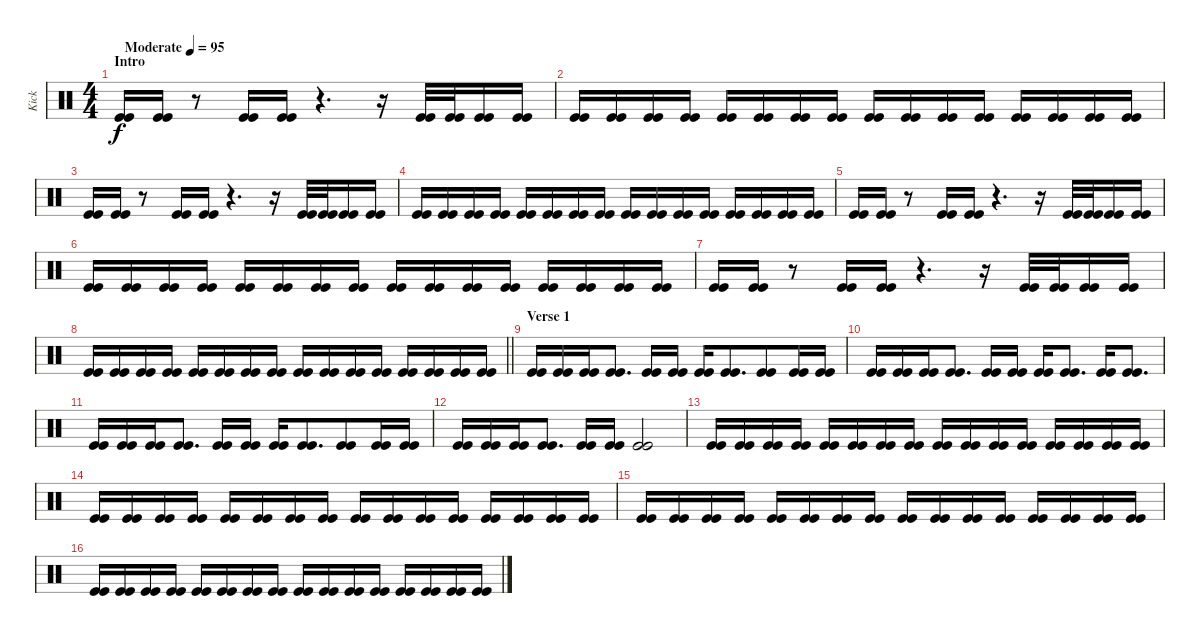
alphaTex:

\track ("Kick" "Kick") {instrument percussion}
\staff {score}
\articulation defaults
\ts (4 4)
\section ("" "Intro")
\tempo (95 "Moderate")
\clef neutral
\ks c
("Kick (hit)" "Kick (hit)").16{dy f} ("Kick (hit)" "Kick (hit)").16 r.8{beam merge} ("Kick (hit)" "Kick (hit)").16 ("Kick (hit)" "Kick (hit)").16 r.4{d} r.16 ("Kick (hit)" "Kick (hit)").32{beam merge} ("Kick (hit)" "Kick (hit)").32{beam merge} ("Kick (hit)" "Kick (hit)").16 ("Kick (hit)" "Kick (hit)").16 |
("Kick (hit)" "Kick (hit)").16{beam merge} ("Kick (hit)" "Kick (hit)").16 ("Kick (hit)" "Kick (hit)").16 ("Kick (hit)" "Kick (hit)").16 ("Kick (hit)" "Kick (hit)").16 ("Kick (hit)" "Kick (hit)").16 ("Kick (hit)" "Kick (hit)").16 ("Kick (hit)" "Kick (hit)").16 ("Kick (hit)" "Kick (hit)").16 ("Kick (hit)" "Kick (hit)").16 ("Kick (hit)" "Kick (hit)").16 ("Kick (hit)" "Kick (hit)").16 ("Kick (hit)" "Kick (hit)").16 ("Kick (hit)" "Kick (hit)").16 ("Kick (hit)" "Kick (hit)").16 ("Kick (hit)" "Kick (hit)").16 |
("Kick (hit)" "Kick (hit)").16 ("Kick (hit)" "Kick (hit)").16 r.8{beam merge} ("Kick (hit)" "Kick (hit)").16 ("Kick (hit)" "Kick (hit)").16 r.4{d} r.16 ("Kick (hit)" "Kick (hit)").32{beam merge} ("Kick (hit)" "Kick (hit)").32{beam merge} ("Kick (hit)" "Kick (hit)").16 ("Kick (hit)" "Kick (hit)").16 |
("Kick (hit)" "Kick (hit)").16{beam merge} ("Kick (hit)" "Kick (hit)").16 ("Kick (hit)" "Kick (hit)").16 ("Kick (hit)" "Kick (hit)").16 ("Kick (hit)" "Kick (hit)").16 ("Kick (hit)" "Kick (hit)").16 ("Kick (hit)" "Kick (hit)").16 ("Kick (hit)" "Kick (hit)").16 ("Kick (hit)" "Kick (hit)").16 ("Kick (hit)" "Kick (hit)").16 ("Kick (hit)" "Kick (hit)").16 ("Kick (hit)" "Kick (hit)").16 ("Kick (hit)" "Kick (hit)").16 ("Kick (hit)" "Kick (hit)").16 ("Kick (hit)" "Kick (hit)").16{beam merge} ("Kick (hit)" "Kick (hit)").16 |
("Kick (hit)" "Kick (hit)").16 ("Kick (hit)" "Kick (hit)").16 r.8{beam merge} ("Kick (hit)" "Kick (hit)").16 ("Kick (hit)" "Kick (hit)").16 r.4{d} r.16 ("Kick (hit)" "Kick (hit)").32{beam merge} ("Kick (hit)" "Kick (hit)").32{beam merge} ("Kick (hit)" "Kick (hit)").16 ("Kick (hit)" "Kick (hit)").16 |
("Kick (hit)" "Kick (hit)").16{beam merge} ("Kick (hit)" "Kick (hit)").16 ("Kick (hit)" "Kick (hit)").16 ("Kick (hit)" "Kick (hit)").16 ("Kick (hit)" "Kick (hit)").16 ("Kick (hit)" "Kick (hit)").16 ("Kick (hit)" "Kick (hit)").16 ("Kick (hit)" "Kick (hit)").16 ("Kick (hit)" "Kick (hit)").16 ("Kick (hit)" "Kick (hit)").16 ("Kick (hit)" "Kick (hit)").16 ("Kick (hit)" "Kick (hit)").16 ("Kick (hit)" "Kick (hit)").16 ("Kick (hit)" "Kick (hit)").16 ("Kick (hit)" "Kick (hit)").16{beam merge} ("Kick (hit)" "Kick (hit)").16 |
("Kick (hit)" "Kick (hit)").16 ("Kick (hit)" "Kick (hit)").16 r.8{beam merge} ("Kick (hit)" "Kick (hit)").16 ("Kick (hit)" "Kick (hit)").16 r.4{d} r.16 ("Kick (hit)" "Kick (hit)").32{beam merge} ("Kick (hit)" "Kick (hit)").32{beam merge} ("Kick (hit)" "Kick (hit)").16 ("Kick (hit)" "Kick (hit)").16 |
\barLineRight lightlight
("Kick (hit)" "Kick (hit)").16{beam merge} ("Kick (hit)" "Kick (hit)").16 ("Kick (hit)" "Kick (hit)").16 ("Kick (hit)" "Kick (hit)").16 ("Kick (hit)" "Kick (hit)").16 ("Kick (hit)" "Kick (hit)").16 ("Kick (hit)" "Kick (hit)").16 ("Kick (hit)" "Kick (hit)").16 ("Kick (hit)" "Kick (hit)").16 ("Kick (hit)" "Kick (hit)").16 ("Kick (hit)" "Kick (hit)").16 ("Kick (hit)" "Kick (hit)").16 ("Kick (hit)" "Kick (hit)").16 ("Kick (hit)" "Kick (hit)").16 ("Kick (hit)" "Kick (hit)").16 ("Kick (hit)" "Kick (hit)").16 |
\section ("" "Verse 1")
("Kick (hit)" "Kick (hit)").16{beam merge} ("Kick (hit)" "Kick (hit)").16 ("Kick (hit)" "Kick (hit)").16 ("Kick (hit)" "Kick (hit)").8{d} ("Kick (hit)" "Kick (hit)").16 ("Kick (hit)" "Kick (hit)").16 ("Kick (hit)" "Kick (hit)").16 ("Kick (hit)" "Kick (hit)").8{d beam merge} ("Kick (hit)" "Kick (hit)").8 ("Kick (hit)" "Kick (hit)").16{beam merge} ("Kick (hit)" "Kick (hit)").16 |
("Kick (hit)" "Kick (hit)").16{beam merge} ("Kick (hit)" "Kick (hit)").16 ("Kick (hit)" "Kick (hit)").16 ("Kick (hit)" "Kick (hit)").8{d} ("Kick (hit)" "Kick (hit)").16 ("Kick (hit)" "Kick (hit)").16 ("Kick (hit)" "Kick (hit)").16 ("Kick (hit)" "Kick (hit)").8{d} ("Kick (hit)" "Kick (hit)").16{beam merge} ("Kick (hit)" "Kick (hit)").8{d} |
("Kick (hit)" "Kick (hit)").16{beam merge} ("Kick (hit)" "Kick (hit)").16 ("Kick (hit)" "Kick (hit)").16 ("Kick (hit)" "Kick (hit)").8{d} ("Kick (hit)" "Kick (hit)").16 ("Kick (hit)" "Kick (hit)").16 ("Kick (hit)" "Kick (hit)").16 ("Kick (hit)" "Kick (hit)").8{d beam merge} ("Kick (hit)" "Kick (hit)").8 ("Kick (hit)" "Kick (hit)").16{beam merge} ("Kick (hit)" "Kick (hit)").16 |
("Kick (hit)" "Kick (hit)").16{beam merge} ("Kick (hit)" "Kick (hit)").16 ("Kick (hit)" "Kick (hit)").16 ("Kick (hit)" "Kick (hit)").8{d} ("Kick (hit)" "Kick (hit)").16 ("Kick (hit)" "Kick (hit)").16 ("Kick (hit)" "Kick (hit)").2 |
("Kick (hit)" "Kick (hit)").16{beam merge} ("Kick (hit)" "Kick (hit)").16 ("Kick (hit)" "Kick (hit)").16 ("Kick (hit)" "Kick (hit)").16 ("Kick (hit)" "Kick (hit)").16 ("Kick (hit)" "Kick (hit)").16 ("Kick (hit)" "Kick (hit)").16 ("Kick (hit)" "Kick (hit)").16 ("Kick (hit)" "Kick (hit)").16 ("Kick (hit)" "Kick (hit)").16 ("Kick (hit)" "Kick (hit)").16 ("Kick (hit)" "Kick (hit)").16 ("Kick (hit)" "Kick (hit)").16 ("Kick (hit)" "Kick (hit)").16 ("Kick (hit)" "Kick (hit)").16 ("Kick (hit)" "Kick (hit)").16 |
("Kick (hit)" "Kick (hit)").16{beam merge} ("Kick (hit)" "Kick (hit)").16 ("Kick (hit)" "Kick (hit)").16 ("Kick (hit)" "Kick (hit)").16 ("Kick (hit)" "Kick (hit)").16 ("Kick (hit)" "Kick (hit)").16 ("Kick (hit)" "Kick (hit)").16 ("Kick (hit)" "Kick (hit)").16 ("Kick (hit)" "Kick (hit)").16 ("Kick (hit)" "Kick (hit)").16 ("Kick (hit)" "Kick (hit)").16 ("Kick (hit)" "Kick (hit)").16 ("Kick (hit)" "Kick (hit)").16 ("Kick (hit)" "Kick (hit)").16 ("Kick (hit)" "Kick (hit)").16 ("Kick (hit)" "Kick (hit)").16 |
("Kick (hit)" "Kick (hit)").16{beam merge} ("Kick (hit)" "Kick (hit)").16 ("Kick (hit)" "Kick (hit)").16 ("Kick (hit)" "Kick (hit)").16 ("Kick (hit)" "Kick (hit)").16 ("Kick (hit)" "Kick (hit)").16 ("Kick (hit)" "Kick (hit)").16 ("Kick (hit)" "Kick (hit)").16 ("Kick (hit)" "Kick (hit)").16 ("Kick (hit)" "Kick (hit)").16 ("Kick (hit)" "Kick (hit)").16 ("Kick (hit)" "Kick (hit)").16 ("Kick (hit)" "Kick (hit)").16 ("Kick (hit)" "Kick (hit)").16 ("Kick (hit)" "Kick (hit)").16 ("Kick (hit)" "Kick (hit)").16 |
("Kick (hit)" "Kick (hit)").16{beam merge} ("Kick (hit)" "Kick (hit)").16 ("Kick (hit)" "Kick (hit)").16 ("Kick (hit)" "Kick (hit)").16 ("Kick (hit)" "Kick (hit)").16 ("Kick (hit)" "Kick (hit)").16 ("Kick (hit)" "Kick (hit)").16 ("Kick (hit)" "Kick (hit)").16 ("Kick (hit)" "Kick (hit)").16 ("Kick (hit)" "Kick (hit)").16 ("Kick (hit)" "Kick (hit)").16 ("Kick (hit)" "Kick (hit)").16 ("Kick (hit)" "Kick (hit)").16 ("Kick (hit)" "Kick (hit)").16 ("Kick (hit)" "Kick (hit)").16 ("Kick (hit)" "Kick (hit)").16
